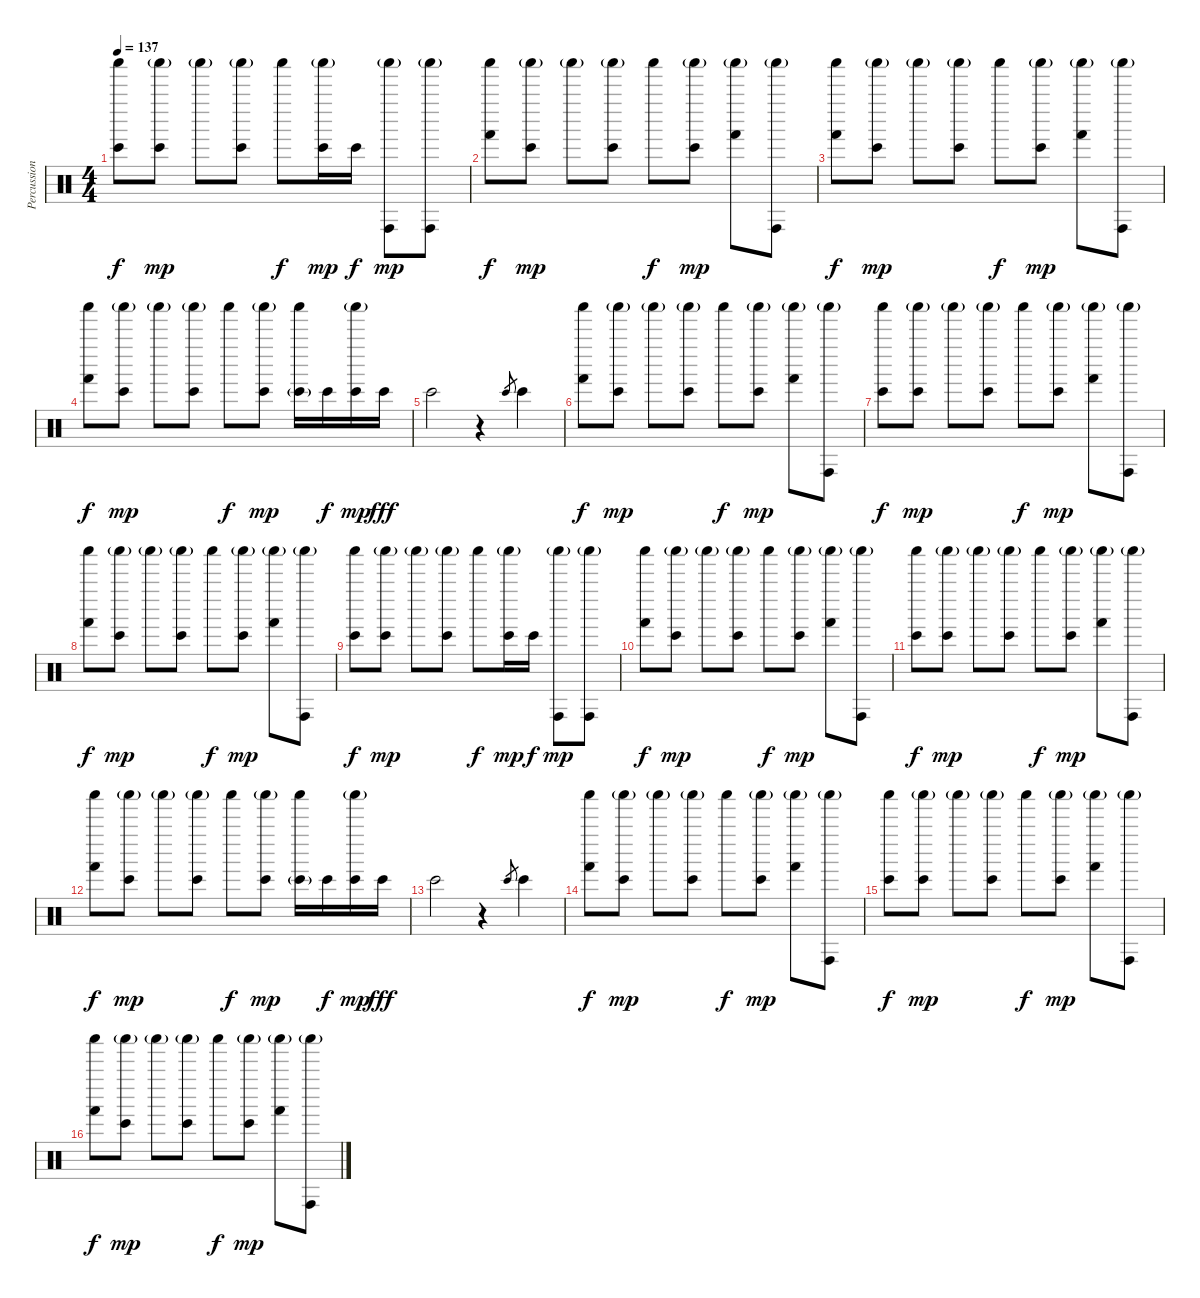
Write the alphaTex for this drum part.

\track ("Percussions" "Percussion") {instrument percussion}
\staff {score}
\articulation defaults
\ts (4 4)
\tempo 137
\clef neutral
\ks c
("Bongo High (hit)" "Shaker (hit)").8{dy f} ("Bongo High (hit)" "Shaker (hit)"{g}).8{dy mp} "Shaker (hit)"{g}.8 ("Bongo High (hit)" "Shaker (hit)"{g}).8 "Shaker (hit)".8{dy f} ("Bongo High (hit)" "Shaker (hit)"{g}).16{dy mp} "Bongo High (hit)".16{dy f} ("Conga high (hit)" "Shaker (hit)"{g}).8{dy mp} ("Conga high (hit)" "Shaker (hit)"{g}).8 |
("Hand (hit)" "Shaker (hit)").8{dy f} ("Bongo High (hit)" "Shaker (hit)"{g}).8{dy mp} "Shaker (hit)"{g}.8 ("Bongo High (hit)" "Shaker (hit)"{g}).8 "Shaker (hit)".8{dy f} ("Bongo High (hit)" "Shaker (hit)"{g}).8{dy mp} ("Hand (hit)" "Shaker (hit)"{g}).8 ("Conga high (hit)" "Shaker (hit)"{g}).8 |
("Hand (hit)" "Shaker (hit)").8{dy f} ("Bongo High (hit)" "Shaker (hit)"{g}).8{dy mp} "Shaker (hit)"{g}.8 ("Bongo High (hit)" "Shaker (hit)"{g}).8 "Shaker (hit)".8{dy f} ("Bongo High (hit)" "Shaker (hit)"{g}).8{dy mp} ("Hand (hit)" "Shaker (hit)"{g}).8 ("Conga high (hit)" "Shaker (hit)"{g}).8 |
("Hand (hit)" "Shaker (hit)").8{dy f} ("Bongo High (hit)" "Shaker (hit)"{g}).8{dy mp} "Shaker (hit)"{g}.8 ("Bongo High (hit)" "Shaker (hit)"{g}).8 "Shaker (hit)".8{dy f} ("Bongo High (hit)" "Shaker (hit)"{g}).8{dy mp} ("Bongo High (hit)"{g} "Shaker (hit)").16 "Bongo High (hit)".16{dy f} ("Bongo High (hit)" "Shaker (hit)"{g}).16{dy mp} "Bongo High (hit)".16{dy fff} |
"Bongo High (hit)".2 r.4 "Bongo High (hit)".8{gr} "Bongo High (hit)".4 |
("Hand (hit)" "Shaker (hit)").8{dy f} ("Bongo High (hit)" "Shaker (hit)"{g}).8{dy mp} "Shaker (hit)"{g}.8 ("Bongo High (hit)" "Shaker (hit)"{g}).8 "Shaker (hit)".8{dy f} ("Bongo High (hit)" "Shaker (hit)"{g}).8{dy mp} ("Hand (hit)" "Shaker (hit)"{g}).8 ("Conga high (hit)" "Shaker (hit)"{g}).8 |
("Bongo High (hit)" "Shaker (hit)").8{dy f} ("Bongo High (hit)" "Shaker (hit)"{g}).8{dy mp} "Shaker (hit)"{g}.8 ("Bongo High (hit)" "Shaker (hit)"{g}).8 "Shaker (hit)".8{dy f} ("Bongo High (hit)" "Shaker (hit)"{g}).8{dy mp} ("Hand (hit)" "Shaker (hit)"{g}).8 ("Conga high (hit)" "Shaker (hit)"{g}).8 |
("Hand (hit)" "Shaker (hit)").8{dy f} ("Bongo High (hit)" "Shaker (hit)"{g}).8{dy mp} "Shaker (hit)"{g}.8 ("Bongo High (hit)" "Shaker (hit)"{g}).8 "Shaker (hit)".8{dy f} ("Bongo High (hit)" "Shaker (hit)"{g}).8{dy mp} ("Hand (hit)" "Shaker (hit)"{g}).8 ("Conga high (hit)" "Shaker (hit)"{g}).8 |
("Bongo High (hit)" "Shaker (hit)").8{dy f} ("Bongo High (hit)" "Shaker (hit)"{g}).8{dy mp} "Shaker (hit)"{g}.8 ("Bongo High (hit)" "Shaker (hit)"{g}).8 "Shaker (hit)".8{dy f} ("Bongo High (hit)" "Shaker (hit)"{g}).16{dy mp} "Bongo High (hit)".16{dy f} ("Conga high (hit)" "Shaker (hit)"{g}).8{dy mp} ("Conga high (hit)" "Shaker (hit)"{g}).8 |
("Hand (hit)" "Shaker (hit)").8{dy f} ("Bongo High (hit)" "Shaker (hit)"{g}).8{dy mp} "Shaker (hit)"{g}.8 ("Bongo High (hit)" "Shaker (hit)"{g}).8 "Shaker (hit)".8{dy f} ("Bongo High (hit)" "Shaker (hit)"{g}).8{dy mp} ("Hand (hit)" "Shaker (hit)"{g}).8 ("Conga high (hit)" "Shaker (hit)"{g}).8 |
("Bongo High (hit)" "Shaker (hit)").8{dy f} ("Bongo High (hit)" "Shaker (hit)"{g}).8{dy mp} "Shaker (hit)"{g}.8 ("Bongo High (hit)" "Shaker (hit)"{g}).8 "Shaker (hit)".8{dy f} ("Bongo High (hit)" "Shaker (hit)"{g}).8{dy mp} ("Hand (hit)" "Shaker (hit)"{g}).8 ("Conga high (hit)" "Shaker (hit)"{g}).8 |
("Hand (hit)" "Shaker (hit)").8{dy f} ("Bongo High (hit)" "Shaker (hit)"{g}).8{dy mp} "Shaker (hit)"{g}.8 ("Bongo High (hit)" "Shaker (hit)"{g}).8 "Shaker (hit)".8{dy f} ("Bongo High (hit)" "Shaker (hit)"{g}).8{dy mp} ("Bongo High (hit)"{g} "Shaker (hit)").16 "Bongo High (hit)".16{dy f} ("Bongo High (hit)" "Shaker (hit)"{g}).16{dy mp} "Bongo High (hit)".16{dy fff} |
"Bongo High (hit)".2 r.4 "Bongo High (hit)".8{gr} "Bongo High (hit)".4 |
("Hand (hit)" "Shaker (hit)").8{dy f} ("Bongo High (hit)" "Shaker (hit)"{g}).8{dy mp} "Shaker (hit)"{g}.8 ("Bongo High (hit)" "Shaker (hit)"{g}).8 "Shaker (hit)".8{dy f} ("Bongo High (hit)" "Shaker (hit)"{g}).8{dy mp} ("Hand (hit)" "Shaker (hit)"{g}).8 ("Conga high (hit)" "Shaker (hit)"{g}).8 |
("Bongo High (hit)" "Shaker (hit)").8{dy f} ("Bongo High (hit)" "Shaker (hit)"{g}).8{dy mp} "Shaker (hit)"{g}.8 ("Bongo High (hit)" "Shaker (hit)"{g}).8 "Shaker (hit)".8{dy f} ("Bongo High (hit)" "Shaker (hit)"{g}).8{dy mp} ("Hand (hit)" "Shaker (hit)"{g}).8 ("Conga high (hit)" "Shaker (hit)"{g}).8 |
("Hand (hit)" "Shaker (hit)").8{dy f} ("Bongo High (hit)" "Shaker (hit)"{g}).8{dy mp} "Shaker (hit)"{g}.8 ("Bongo High (hit)" "Shaker (hit)"{g}).8 "Shaker (hit)".8{dy f} ("Bongo High (hit)" "Shaker (hit)"{g}).8{dy mp} ("Hand (hit)" "Shaker (hit)"{g}).8 ("Conga high (hit)" "Shaker (hit)"{g}).8
